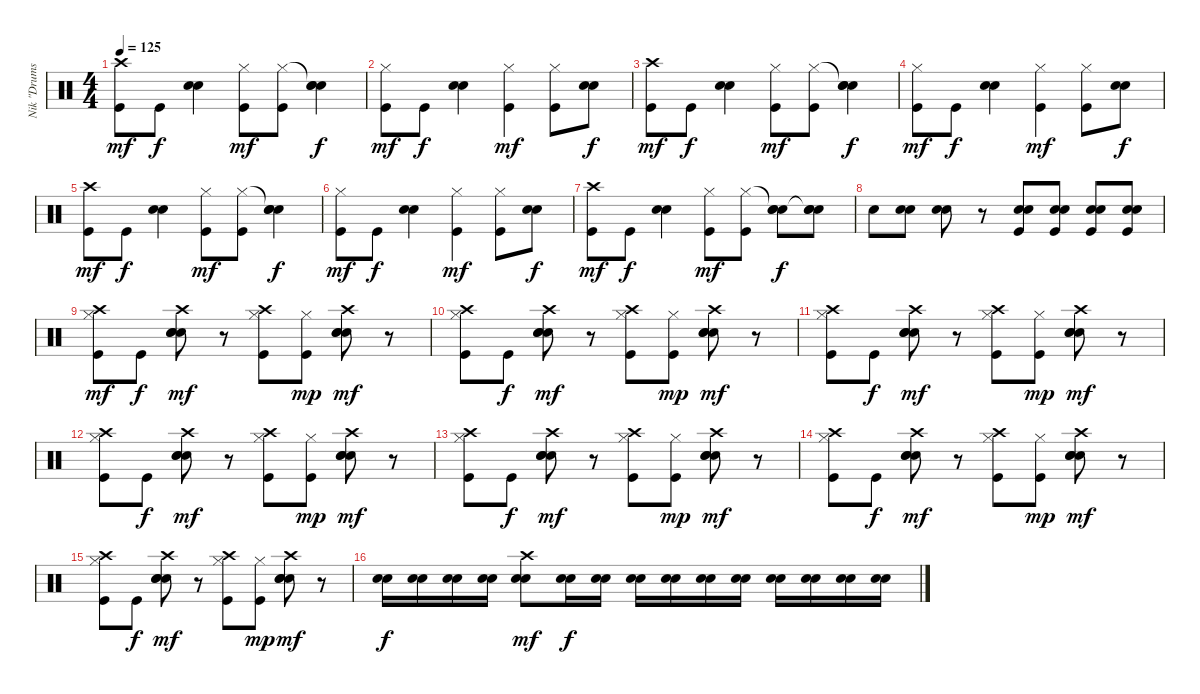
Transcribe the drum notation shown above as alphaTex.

\track ("Nik \"Drums\"" "Nik \"Drums") {instrument percussion}
\staff {score}
\articulation defaults
\ts (4 4)
\tempo 125
\clef neutral
\ks c
("Crash high (hit)" "Kick (hit)").8{dy mf} "Kick (hit)".8{dy f} ("Electric Snare (hit)" "Electric Snare (hit)").4 ("Hi-Hat (closed)" "Kick (hit)").8{dy mf} ("Hi-Hat (closed)" "Kick (hit)").8 ("Snare (hit)"{t} "Electric Snare (hit)" "Electric Snare (hit)").4{dy f} |
("Hi-Hat (closed)" "Kick (hit)").8{dy mf} "Kick (hit)".8{dy f} ("Electric Snare (hit)" "Electric Snare (hit)").4 ("Hi-Hat (closed)" "Kick (hit)").4{dy mf} ("Hi-Hat (closed)" "Kick (hit)").8 ("Electric Snare (hit)" "Electric Snare (hit)").8{dy f} |
("Crash high (hit)" "Kick (hit)").8{dy mf} "Kick (hit)".8{dy f} ("Electric Snare (hit)" "Electric Snare (hit)").4 ("Hi-Hat (closed)" "Kick (hit)").8{dy mf} ("Hi-Hat (closed)" "Kick (hit)").8 ("Snare (hit)"{t} "Electric Snare (hit)" "Electric Snare (hit)").4{dy f} |
("Hi-Hat (closed)" "Kick (hit)").8{dy mf} "Kick (hit)".8{dy f} ("Electric Snare (hit)" "Electric Snare (hit)").4 ("Hi-Hat (closed)" "Kick (hit)").4{dy mf} ("Hi-Hat (closed)" "Kick (hit)").8 ("Electric Snare (hit)" "Electric Snare (hit)").8{dy f} |
("Crash high (hit)" "Kick (hit)").8{dy mf} "Kick (hit)".8{dy f} ("Electric Snare (hit)" "Electric Snare (hit)").4 ("Hi-Hat (closed)" "Kick (hit)").8{dy mf} ("Hi-Hat (closed)" "Kick (hit)").8 ("Snare (hit)"{t} "Electric Snare (hit)" "Electric Snare (hit)").4{dy f} |
("Hi-Hat (closed)" "Kick (hit)").8{dy mf} "Kick (hit)".8{dy f} ("Electric Snare (hit)" "Electric Snare (hit)").4 ("Hi-Hat (closed)" "Kick (hit)").4{dy mf} ("Hi-Hat (closed)" "Kick (hit)").8 ("Electric Snare (hit)" "Electric Snare (hit)").8{dy f} |
("Crash high (hit)" "Kick (hit)").8{dy mf} "Kick (hit)".8{dy f} ("Electric Snare (hit)" "Electric Snare (hit)").4 ("Hi-Hat (closed)" "Kick (hit)").8{dy mf} ("Hi-Hat (closed)" "Kick (hit)").8 ("Snare (hit)"{t} "Electric Snare (hit)" "Electric Snare (hit)").8{dy f} ("Snare (hit)"{t} "Electric Snare (hit)" "Electric Snare (hit)").8 |
"Electric Snare (hit)".8{balance 8} ("Snare (hit) 2" "Electric Snare (hit)").8 ("Snare (hit) 2" "Electric Snare (hit)").8 r.8 ("Kick (hit)" "Electric Snare (hit)" "Electric Snare (hit)").8 ("Kick (hit)" "Electric Snare (hit)" "Electric Snare (hit)").8 ("Kick (hit)" "Electric Snare (hit)" "Snare (hit) 2").8 ("Kick (hit)" "Electric Snare (hit)" "Snare (hit) 2").8 |
("Hi-Hat (closed)" "Crash high (hit)" "Kick (hit)").8{dy mf} "Kick (hit)".8{dy f} ("Electric Snare (hit)" "Crash high (hit)" "Electric Snare (hit)" "Snare (hit) 2").8{dy mf} r.8 ("Hi-Hat (closed)" "Crash high (hit)" "Kick (hit)").8 ("Hi-Hat (closed)" "Kick (hit)").8{dy mp} ("Electric Snare (hit)" "Crash high (hit)" "Electric Snare (hit)" "Snare (hit) 2").8{dy mf} r.8 |
("Hi-Hat (closed)" "Crash high (hit)" "Kick (hit)").8 "Kick (hit)".8{dy f} ("Electric Snare (hit)" "Crash high (hit)" "Electric Snare (hit)" "Snare (hit) 2").8{dy mf} r.8 ("Hi-Hat (closed)" "Crash high (hit)" "Kick (hit)").8 ("Hi-Hat (closed)" "Kick (hit)").8{dy mp} ("Electric Snare (hit)" "Crash high (hit)" "Electric Snare (hit)" "Snare (hit) 2").8{dy mf} r.8 |
("Hi-Hat (closed)" "Crash high (hit)" "Kick (hit)").8 "Kick (hit)".8{dy f} ("Electric Snare (hit)" "Crash high (hit)" "Electric Snare (hit)" "Snare (hit) 2").8{dy mf} r.8 ("Hi-Hat (closed)" "Crash high (hit)" "Kick (hit)").8 ("Hi-Hat (closed)" "Kick (hit)").8{dy mp} ("Electric Snare (hit)" "Crash high (hit)" "Electric Snare (hit)" "Snare (hit) 2").8{dy mf} r.8 |
("Hi-Hat (closed)" "Crash high (hit)" "Kick (hit)").8 "Kick (hit)".8{dy f} ("Electric Snare (hit)" "Crash high (hit)" "Electric Snare (hit)" "Snare (hit) 2").8{dy mf} r.8 ("Hi-Hat (closed)" "Crash high (hit)" "Kick (hit)").8 ("Hi-Hat (closed)" "Kick (hit)").8{dy mp} ("Electric Snare (hit)" "Crash high (hit)" "Electric Snare (hit)" "Snare (hit) 2").8{dy mf} r.8 |
("Hi-Hat (closed)" "Crash high (hit)" "Kick (hit)").8 "Kick (hit)".8{dy f} ("Electric Snare (hit)" "Crash high (hit)" "Electric Snare (hit)" "Snare (hit) 2").8{dy mf} r.8 ("Hi-Hat (closed)" "Crash high (hit)" "Kick (hit)").8 ("Hi-Hat (closed)" "Kick (hit)").8{dy mp} ("Electric Snare (hit)" "Crash high (hit)" "Electric Snare (hit)" "Snare (hit) 2").8{dy mf} r.8 |
("Hi-Hat (closed)" "Crash high (hit)" "Kick (hit)").8 "Kick (hit)".8{dy f} ("Electric Snare (hit)" "Crash high (hit)" "Electric Snare (hit)" "Snare (hit) 2").8{dy mf} r.8 ("Hi-Hat (closed)" "Crash high (hit)" "Kick (hit)").8 ("Hi-Hat (closed)" "Kick (hit)").8{dy mp} ("Electric Snare (hit)" "Crash high (hit)" "Electric Snare (hit)" "Snare (hit) 2").8{dy mf} r.8 |
("Hi-Hat (closed)" "Crash high (hit)" "Kick (hit)").8 "Kick (hit)".8{dy f} ("Electric Snare (hit)" "Crash high (hit)" "Electric Snare (hit)" "Snare (hit) 2").8{dy mf} r.8 ("Hi-Hat (closed)" "Crash high (hit)" "Kick (hit)").8 ("Hi-Hat (closed)" "Kick (hit)").8{dy mp} ("Electric Snare (hit)" "Crash high (hit)" "Electric Snare (hit)" "Snare (hit) 2").8{dy mf} r.8 |
("Electric Snare (hit)" "Snare (hit) 2").16{dy f} ("Electric Snare (hit)" "Snare (hit) 2").16 ("Electric Snare (hit)" "Snare (hit) 2").16 ("Electric Snare (hit)" "Snare (hit) 2").16 ("Electric Snare (hit)" "Snare (hit) 2" "Crash high (hit)").8{dy mf} ("Electric Snare (hit)" "Snare (hit) 2").16{dy f} ("Electric Snare (hit)" "Snare (hit) 2").16 ("Electric Snare (hit)" "Snare (hit) 2").16 ("Electric Snare (hit)" "Snare (hit) 2").16 ("Electric Snare (hit)" "Snare (hit) 2").16 ("Electric Snare (hit)" "Snare (hit) 2").16 ("Electric Snare (hit)" "Snare (hit) 2").16 ("Electric Snare (hit)" "Snare (hit) 2").16 ("Electric Snare (hit)" "Snare (hit) 2").16 ("Electric Snare (hit)" "Snare (hit) 2").16
